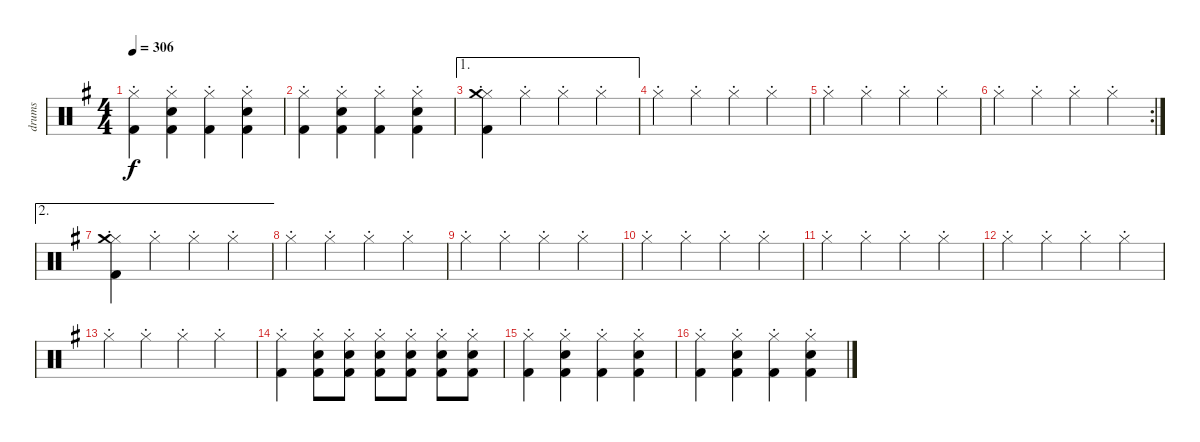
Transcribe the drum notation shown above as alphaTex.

\track ("drums" "drums") {instrument percussion}
\staff {score}
\articulation defaults
\ts (4 4)
\tempo 306
\clef neutral
\ks g
("Hi-Hat (closed)"{st} "Kick (hit) 2").4{dy f} ("Hi-Hat (closed)"{st} "Electric Snare (hit)" "Kick (hit) 2").4 ("Hi-Hat (closed)"{st} "Kick (hit) 2").4 ("Hi-Hat (closed)"{st} "Electric Snare (hit)" "Kick (hit) 2").4 |
("Hi-Hat (closed)"{st} "Kick (hit) 2").4 ("Hi-Hat (closed)"{st} "Electric Snare (hit)" "Kick (hit) 2").4 ("Hi-Hat (closed)"{st} "Kick (hit) 2").4 ("Hi-Hat (closed)"{st} "Electric Snare (hit)" "Kick (hit) 2").4 |
\ae 1
("Hi-Hat (closed)"{st} "Crash medium (hit)" "Kick (hit) 2").4 "Hi-Hat (closed)"{st}.4 "Hi-Hat (closed)"{st}.4 "Hi-Hat (closed)"{st}.4 |
"Hi-Hat (closed)"{st}.4 "Hi-Hat (closed)"{st}.4 "Hi-Hat (closed)"{st}.4 "Hi-Hat (closed)"{st}.4 |
"Hi-Hat (closed)"{st}.4 "Hi-Hat (closed)"{st}.4 "Hi-Hat (closed)"{st}.4 "Hi-Hat (closed)"{st}.4 |
\rc 2 "Hi-Hat (closed)"{st}.4 "Hi-Hat (closed)"{st}.4 "Hi-Hat (closed)"{st}.4 "Hi-Hat (closed)"{st}.4
|
\ae 2
("Hi-Hat (closed)"{st} "Crash medium (hit)" "Kick (hit) 2").4 "Hi-Hat (closed)"{st}.4 "Hi-Hat (closed)"{st}.4 "Hi-Hat (closed)"{st}.4 |
"Hi-Hat (closed)"{st}.4 "Hi-Hat (closed)"{st}.4 "Hi-Hat (closed)"{st}.4 "Hi-Hat (closed)"{st}.4 |
"Hi-Hat (closed)"{st}.4 "Hi-Hat (closed)"{st}.4 "Hi-Hat (closed)"{st}.4 "Hi-Hat (closed)"{st}.4 |
"Hi-Hat (closed)"{st}.4 "Hi-Hat (closed)"{st}.4 "Hi-Hat (closed)"{st}.4 "Hi-Hat (closed)"{st}.4 |
"Hi-Hat (closed)"{st}.4 "Hi-Hat (closed)"{st}.4 "Hi-Hat (closed)"{st}.4 "Hi-Hat (closed)"{st}.4 |
"Hi-Hat (closed)"{st}.4 "Hi-Hat (closed)"{st}.4 "Hi-Hat (closed)"{st}.4 "Hi-Hat (closed)"{st}.4 |
"Hi-Hat (closed)"{st}.4 "Hi-Hat (closed)"{st}.4 "Hi-Hat (closed)"{st}.4 "Hi-Hat (closed)"{st}.4 |
("Hi-Hat (closed)"{st} "Kick (hit) 2").4 ("Hi-Hat (closed)"{st} "Electric Snare (hit)" "Kick (hit) 2").8 ("Hi-Hat (closed)"{st} "Electric Snare (hit)" "Kick (hit) 2").8 ("Hi-Hat (closed)"{st} "Electric Snare (hit)" "Kick (hit) 2").8 ("Hi-Hat (closed)"{st} "Electric Snare (hit)" "Kick (hit) 2").8 ("Hi-Hat (closed)"{st} "Electric Snare (hit)" "Kick (hit) 2").8 ("Hi-Hat (closed)"{st} "Electric Snare (hit)" "Kick (hit) 2").8 |
("Hi-Hat (closed)"{st} "Kick (hit) 2").4 ("Hi-Hat (closed)"{st} "Electric Snare (hit)" "Kick (hit) 2").4 ("Hi-Hat (closed)"{st} "Kick (hit) 2").4 ("Hi-Hat (closed)"{st} "Electric Snare (hit)" "Kick (hit) 2").4 |
("Hi-Hat (closed)"{st} "Kick (hit) 2").4 ("Hi-Hat (closed)"{st} "Electric Snare (hit)" "Kick (hit) 2").4 ("Hi-Hat (closed)"{st} "Kick (hit) 2").4 ("Hi-Hat (closed)"{st} "Electric Snare (hit)" "Kick (hit) 2").4
